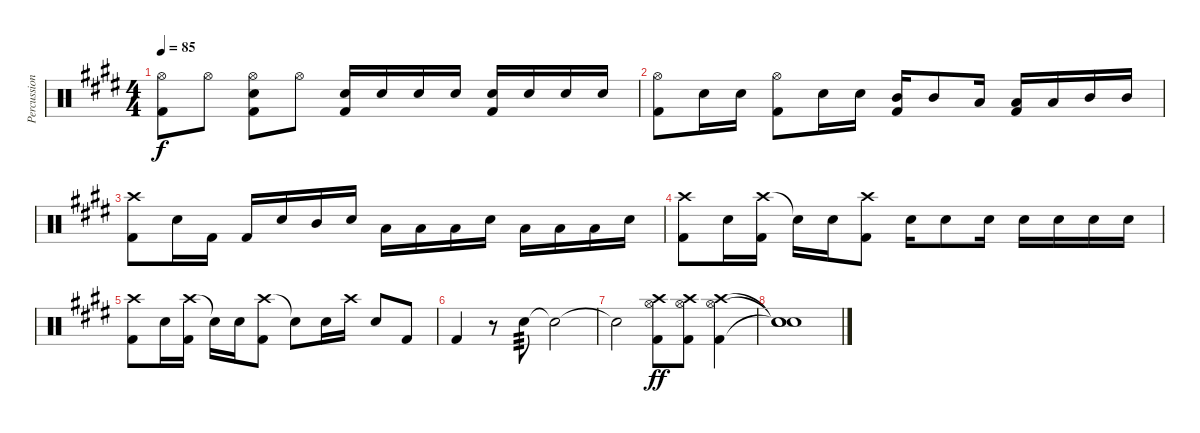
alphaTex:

\track ("Percussion" "Percussion") {instrument percussion}
\staff {score}
\articulation defaults
\ts (4 4)
\tempo 85
\clef neutral
\ks e
("Hi-Hat (open)" "Kick (hit) 2").8{dy f} "Hi-Hat (open)".8 ("Hi-Hat (open)" "Snare (hit) 2" "Kick (hit) 2").8 "Hi-Hat (open)".8 ("Snare (hit) 2" "Kick (hit) 2").16 "Snare (hit) 2".16 "Snare (hit) 2".16 "Snare (hit) 2".16 ("Snare (hit) 2" "Kick (hit) 2").16 "Snare (hit) 2".16 "Snare (hit) 2".16 "Snare (hit) 2".16 |
("Hi-Hat (open)" "Kick (hit) 2").8 "Snare (hit) 2".16 "Snare (hit) 2".16 ("Hi-Hat (open)" "Kick (hit) 2").8 "Snare (hit) 2".16 "Snare (hit) 2".16 ("Mid Tom (hit)" "Kick (hit) 2").16 "Mid Tom (hit)".8 "Low Floor Tom (hit)".16 ("Low Floor Tom (hit)" "Kick (hit) 2").16 "Low Floor Tom (hit)".16 "Mid Tom (hit)".16 "Mid Tom (hit)".16 |
("Crash high (hit)" "Kick (hit) 2").8 "Snare (hit) 2".16 "Kick (hit) 2".16 "Kick (hit) 2".16 "Snare (hit) 2".16 "Mid Tom (hit)".16 "Snare (hit) 2".16 "Low Floor Tom (hit)".16 "Low Floor Tom (hit)".16 "Low Floor Tom (hit)".16 "Snare (hit) 2".16 "Low Floor Tom (hit)".16 "Low Floor Tom (hit)".16 "Low Floor Tom (hit)".16 "Snare (hit) 2".16 |
("Crash high (hit)" "Kick (hit) 2").8 "Snare (hit) 2".16 ("Crash high (hit)" "Kick (hit) 2").16 "Snare (hit)"{t}.16 "Snare (hit) 2".16 ("Crash high (hit)" "Kick (hit) 2").8 "Snare (hit) 2".16 "Snare (hit) 2".8 "Snare (hit) 2".16 "Snare (hit) 2".16 "Snare (hit) 2".16 "Snare (hit) 2".16 "Snare (hit) 2".16 |
("Crash high (hit)" "Kick (hit) 2").8 "Snare (hit) 2".16 ("Crash high (hit)" "Kick (hit) 2").16 "Snare (hit)"{t}.16 "Snare (hit) 2".16 ("Crash high (hit)" "Kick (hit) 2").8 "Snare (hit)"{t}.8 "Snare (hit) 2".16 "Crash high (hit)".16 "Snare (hit) 2".8 "Kick (hit) 2".8 |
"Kick (hit) 2".4 r.8{volume 5} "Snare (hit) 2".8{tp 3 volume 14} "Snare (hit)"{t}.2 |
"Snare (hit)"{t}.2 ("Crash high (hit)" "Hi-Hat (open)" "Kick (hit) 2").8{dy ff} ("Crash high (hit)" "Hi-Hat (open)" "Kick (hit) 2").8 ("Crash high (hit)" "Hi-Hat (open)" "Kick (hit) 2").4 |
("Snare (hit)"{t} "Snare (hit)"{t} "Snare (hit)"{t}).1
